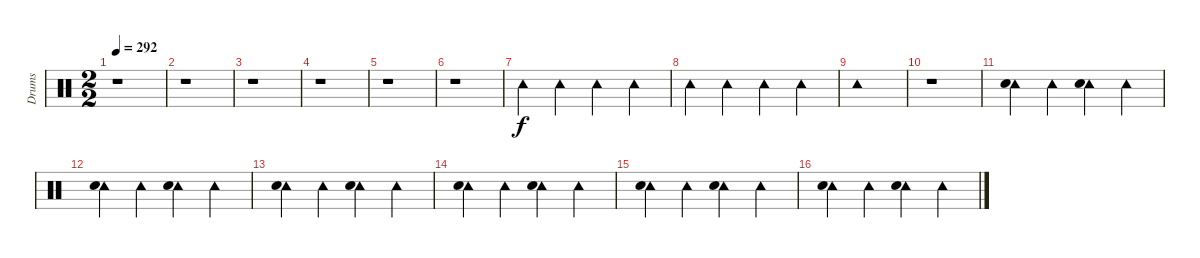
\track ("Drums" "Drums") {instrument percussion}
\staff {score}
\articulation defaults
\ts (2 2)
\tempo 292
\clef neutral
\ks c
r.1{dy f} |
r.1 |
r.1 |
r.1 |
r.1 |
r.1 |
"Tambourine (hit)".4 "Tambourine (hit)".4 "Tambourine (hit)".4 "Tambourine (hit)".4 |
"Tambourine (hit)".4 "Tambourine (hit)".4 "Tambourine (hit)".4 "Tambourine (hit)".4 |
"Tambourine (hit)".1 |
r.1 |
("Tambourine (hit)" "Electric Snare (hit)").4 "Tambourine (hit)".4 ("Tambourine (hit)" "Electric Snare (hit)").4 "Tambourine (hit)".4 |
("Tambourine (hit)" "Electric Snare (hit)").4 "Tambourine (hit)".4 ("Tambourine (hit)" "Electric Snare (hit)").4 "Tambourine (hit)".4 |
("Tambourine (hit)" "Electric Snare (hit)").4 "Tambourine (hit)".4 ("Tambourine (hit)" "Electric Snare (hit)").4 "Tambourine (hit)".4 |
("Tambourine (hit)" "Electric Snare (hit)").4 "Tambourine (hit)".4 ("Tambourine (hit)" "Electric Snare (hit)").4 "Tambourine (hit)".4 |
("Tambourine (hit)" "Electric Snare (hit)").4 "Tambourine (hit)".4 ("Tambourine (hit)" "Electric Snare (hit)").4 "Tambourine (hit)".4 |
("Tambourine (hit)" "Electric Snare (hit)").4 "Tambourine (hit)".4 ("Tambourine (hit)" "Electric Snare (hit)").4 "Tambourine (hit)".4
